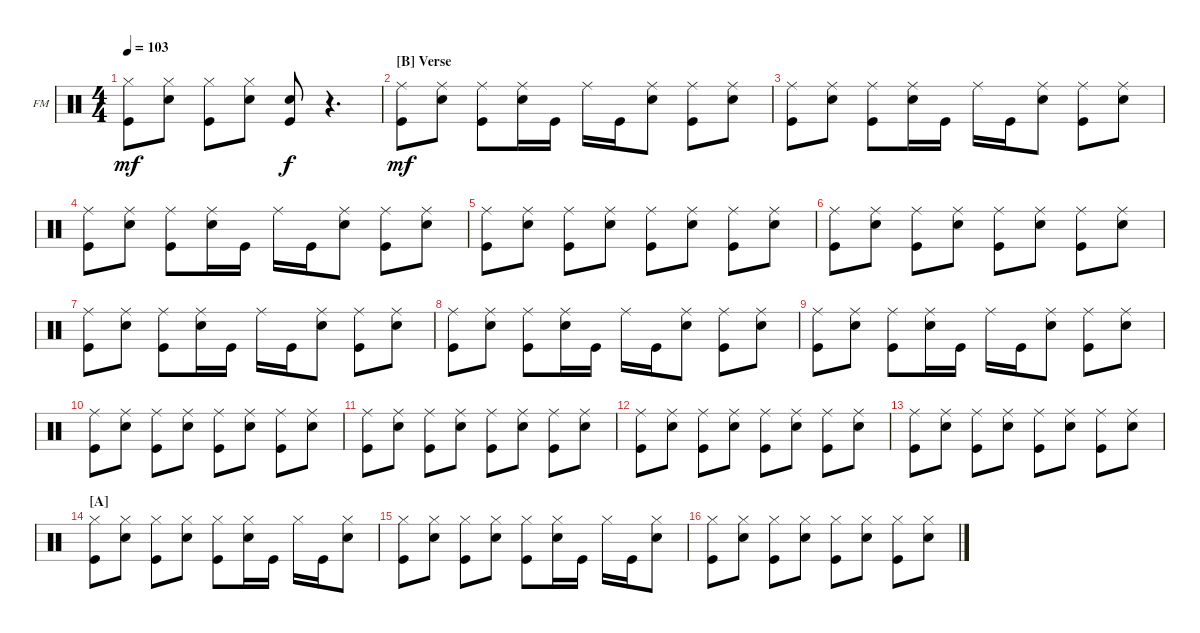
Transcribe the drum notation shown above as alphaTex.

\defaultSystemsLayout 4
\bracketExtendMode groupsimilarinstruments
\firstSystemTrackNameOrientation horizontal
\otherSystemsTrackNameOrientation horizontal
\track ("Fabrizio Moretti" "FM") {instrument percussion}
\staff {score}
\articulation defaults
\ts (4 4)
\tempo 103
\clef neutral
\ks c
("Kick (hit)" "Hi-Hat (closed)").8{dy mf} ("Snare (hit) 2" "Hi-Hat (closed)").8 ("Kick (hit)" "Hi-Hat (closed)").8 ("Snare (hit) 2" "Hi-Hat (closed)").8 ("Kick (hit)" "Snare (hit) 2").8{dy f} r.4{d} |
\section ("B" "Verse")
("Kick (hit)" "Ride (middle)").8{dy mf} ("Snare (hit) 2" "Ride (middle)").8 ("Kick (hit)" "Ride (middle)").8 ("Snare (hit) 2" "Ride (middle)").16 "Kick (hit)".16 "Ride (middle)".16 "Kick (hit)".16 ("Snare (hit) 2" "Ride (middle)").8 ("Kick (hit)" "Ride (middle)").8 ("Snare (hit) 2" "Ride (middle)").8 |
("Kick (hit)" "Ride (middle)").8 ("Snare (hit) 2" "Ride (middle)").8 ("Kick (hit)" "Ride (middle)").8 ("Snare (hit) 2" "Ride (middle)").16 "Kick (hit)".16 "Ride (middle)".16 "Kick (hit)".16 ("Snare (hit) 2" "Ride (middle)").8 ("Kick (hit)" "Ride (middle)").8 ("Snare (hit) 2" "Ride (middle)").8 |
("Kick (hit)" "Ride (middle)").8 ("Snare (hit) 2" "Ride (middle)").8 ("Kick (hit)" "Ride (middle)").8 ("Snare (hit) 2" "Ride (middle)").16 "Kick (hit)".16 "Ride (middle)".16 "Kick (hit)".16 ("Snare (hit) 2" "Ride (middle)").8 ("Kick (hit)" "Ride (middle)").8 ("Snare (hit) 2" "Ride (middle)").8 |
("Kick (hit)" "Ride (middle)").8 ("Snare (hit) 2" "Ride (middle)").8 ("Kick (hit)" "Ride (middle)").8 ("Snare (hit) 2" "Ride (middle)").8 ("Kick (hit)" "Ride (middle)").8 ("Snare (hit) 2" "Ride (middle)").8 ("Kick (hit)" "Ride (middle)").8 ("Snare (hit) 2" "Ride (middle)").8 |
("Kick (hit)" "Ride (middle)").8 ("Snare (hit) 2" "Ride (middle)").8 ("Kick (hit)" "Ride (middle)").8 ("Snare (hit) 2" "Ride (middle)").8 ("Kick (hit)" "Ride (middle)").8 ("Snare (hit) 2" "Ride (middle)").8 ("Kick (hit)" "Ride (middle)").8 ("Snare (hit) 2" "Ride (middle)").8 |
("Kick (hit)" "Ride (middle)").8 ("Snare (hit) 2" "Ride (middle)").8 ("Kick (hit)" "Ride (middle)").8 ("Snare (hit) 2" "Ride (middle)").16 "Kick (hit)".16 "Ride (middle)".16 "Kick (hit)".16 ("Snare (hit) 2" "Ride (middle)").8 ("Kick (hit)" "Ride (middle)").8 ("Snare (hit) 2" "Ride (middle)").8 |
("Kick (hit)" "Ride (middle)").8 ("Snare (hit) 2" "Ride (middle)").8 ("Kick (hit)" "Ride (middle)").8 ("Snare (hit) 2" "Ride (middle)").16 "Kick (hit)".16 "Ride (middle)".16 "Kick (hit)".16 ("Snare (hit) 2" "Ride (middle)").8 ("Kick (hit)" "Ride (middle)").8 ("Snare (hit) 2" "Ride (middle)").8 |
("Kick (hit)" "Ride (middle)").8 ("Snare (hit) 2" "Ride (middle)").8 ("Kick (hit)" "Ride (middle)").8 ("Snare (hit) 2" "Ride (middle)").16 "Kick (hit)".16 "Ride (middle)".16 "Kick (hit)".16 ("Snare (hit) 2" "Ride (middle)").8 ("Kick (hit)" "Ride (middle)").8 ("Snare (hit) 2" "Ride (middle)").8 |
("Kick (hit)" "Ride (middle)").8 ("Snare (hit) 2" "Ride (middle)").8 ("Kick (hit)" "Ride (middle)").8 ("Snare (hit) 2" "Ride (middle)").8 ("Kick (hit)" "Ride (middle)").8 ("Snare (hit) 2" "Ride (middle)").8 ("Kick (hit)" "Ride (middle)").8 ("Snare (hit) 2" "Ride (middle)").8 |
("Kick (hit)" "Ride (middle)").8 ("Snare (hit) 2" "Ride (middle)").8 ("Kick (hit)" "Ride (middle)").8 ("Snare (hit) 2" "Ride (middle)").8 ("Kick (hit)" "Ride (middle)").8 ("Snare (hit) 2" "Ride (middle)").8 ("Kick (hit)" "Ride (middle)").8 ("Snare (hit) 2" "Ride (middle)").8 |
("Kick (hit)" "Ride (middle)").8 ("Snare (hit) 2" "Ride (middle)").8 ("Kick (hit)" "Ride (middle)").8 ("Snare (hit) 2" "Ride (middle)").8 ("Kick (hit)" "Ride (middle)").8 ("Snare (hit) 2" "Ride (middle)").8 ("Kick (hit)" "Ride (middle)").8 ("Snare (hit) 2" "Ride (middle)").8 |
("Kick (hit)" "Ride (middle)").8 ("Snare (hit) 2" "Ride (middle)").8 ("Kick (hit)" "Ride (middle)").8 ("Snare (hit) 2" "Ride (middle)").8 ("Kick (hit)" "Ride (middle)").8 ("Snare (hit) 2" "Ride (middle)").8 ("Kick (hit)" "Ride (middle)").8 ("Snare (hit) 2" "Ride (middle)").8 |
\section ("A" "")
("Kick (hit)" "Hi-Hat (closed)").8 ("Snare (hit) 2" "Hi-Hat (closed)").8 ("Kick (hit)" "Hi-Hat (closed)").8 ("Snare (hit) 2" "Hi-Hat (closed)").8 ("Kick (hit)" "Hi-Hat (closed)").8 ("Snare (hit) 2" "Hi-Hat (closed)").16 "Kick (hit)".16 "Hi-Hat (closed)".16 "Kick (hit)".16 ("Snare (hit) 2" "Hi-Hat (closed)").8 |
("Kick (hit)" "Hi-Hat (closed)").8 ("Snare (hit) 2" "Hi-Hat (closed)").8 ("Kick (hit)" "Hi-Hat (closed)").8 ("Snare (hit) 2" "Hi-Hat (closed)").8 ("Kick (hit)" "Hi-Hat (closed)").8 ("Snare (hit) 2" "Hi-Hat (closed)").16 "Kick (hit)".16 "Hi-Hat (closed)".16 "Kick (hit)".16 ("Snare (hit) 2" "Hi-Hat (closed)").8 |
("Kick (hit)" "Hi-Hat (closed)").8 ("Snare (hit) 2" "Hi-Hat (closed)").8 ("Kick (hit)" "Hi-Hat (closed)").8 ("Snare (hit) 2" "Hi-Hat (closed)").8 ("Kick (hit)" "Hi-Hat (closed)").8 ("Snare (hit) 2" "Hi-Hat (closed)").8 ("Kick (hit)" "Hi-Hat (closed)").8 ("Snare (hit) 2" "Hi-Hat (closed)").8
